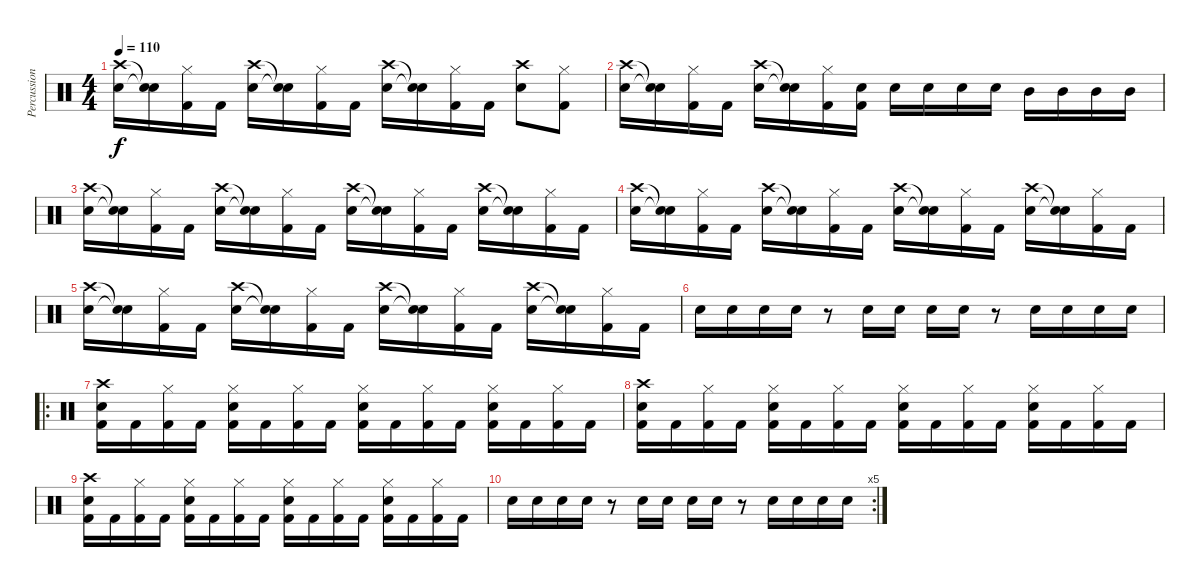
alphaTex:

\track ("Percussion" "Percussion") {instrument percussion}
\staff {score}
\articulation defaults
\ts (4 4)
\tempo 110
\clef neutral
\ks c
("Crash high (hit)" "Snare (hit) 2").16{dy f} ("Snare (hit)"{t} "Snare (hit)"{t}).16 ("Hi-Hat (closed)" "Kick (hit) 2").16 "Kick (hit) 2".16 ("Crash high (hit)" "Snare (hit) 2").16 ("Snare (hit)"{t} "Snare (hit)"{t}).16 ("Hi-Hat (closed)" "Kick (hit) 2").16 "Kick (hit) 2".16 ("Crash high (hit)" "Snare (hit) 2").16 ("Snare (hit)"{t} "Snare (hit)"{t}).16 ("Hi-Hat (closed)" "Kick (hit) 2").16 "Kick (hit) 2".16 ("Crash high (hit)" "Snare (hit) 2").8 ("Hi-Hat (closed)" "Kick (hit) 2").8 |
("Crash high (hit)" "Snare (hit) 2").16 ("Snare (hit)"{t} "Snare (hit)"{t}).16 ("Hi-Hat (closed)" "Kick (hit) 2").16 "Kick (hit) 2".16 ("Crash high (hit)" "Snare (hit) 2").16 ("Snare (hit)"{t} "Snare (hit)"{t}).16 ("Hi-Hat (closed)" "Kick (hit) 2").16 ("Snare (hit) 2" "Kick (hit) 2").16 "Snare (hit) 2".16 "Snare (hit) 2".16 "Snare (hit) 2".16 "Snare (hit) 2".16 "Mid Tom (hit)".16 "Mid Tom (hit)".16 "Mid Tom (hit)".16 "Mid Tom (hit)".16 |
("Crash high (hit)" "Snare (hit) 2").16 ("Snare (hit)"{t} "Snare (hit)"{t}).16 ("Hi-Hat (closed)" "Kick (hit) 2").16 "Kick (hit) 2".16 ("Crash high (hit)" "Snare (hit) 2").16 ("Snare (hit)"{t} "Snare (hit)"{t}).16 ("Hi-Hat (closed)" "Kick (hit) 2").16 "Kick (hit) 2".16 ("Crash high (hit)" "Snare (hit) 2").16 ("Snare (hit)"{t} "Snare (hit)"{t}).16 ("Hi-Hat (closed)" "Kick (hit) 2").16 "Kick (hit) 2".16 ("Crash high (hit)" "Snare (hit) 2").16 ("Snare (hit)"{t} "Snare (hit)"{t}).16 ("Hi-Hat (closed)" "Kick (hit) 2").16 "Kick (hit) 2".16 |
("Crash high (hit)" "Snare (hit) 2").16 ("Snare (hit)"{t} "Snare (hit)"{t}).16 ("Hi-Hat (closed)" "Kick (hit) 2").16 "Kick (hit) 2".16 ("Crash high (hit)" "Snare (hit) 2").16 ("Snare (hit)"{t} "Snare (hit)"{t}).16 ("Hi-Hat (closed)" "Kick (hit) 2").16 "Kick (hit) 2".16 ("Crash high (hit)" "Snare (hit) 2").16 ("Snare (hit)"{t} "Snare (hit)"{t}).16 ("Hi-Hat (closed)" "Kick (hit) 2").16 "Kick (hit) 2".16 ("Crash high (hit)" "Snare (hit) 2").16 ("Snare (hit)"{t} "Snare (hit)"{t}).16 ("Hi-Hat (closed)" "Kick (hit) 2").16 "Kick (hit) 2".16 |
("Crash high (hit)" "Snare (hit) 2").16 ("Snare (hit)"{t} "Snare (hit)"{t}).16 ("Hi-Hat (closed)" "Kick (hit) 2").16 "Kick (hit) 2".16 ("Crash high (hit)" "Snare (hit) 2").16 ("Snare (hit)"{t} "Snare (hit)"{t}).16 ("Hi-Hat (closed)" "Kick (hit) 2").16 "Kick (hit) 2".16 ("Crash high (hit)" "Snare (hit) 2").16 ("Snare (hit)"{t} "Snare (hit)"{t}).16 ("Hi-Hat (closed)" "Kick (hit) 2").16 "Kick (hit) 2".16 ("Crash high (hit)" "Snare (hit) 2").16 ("Snare (hit)"{t} "Snare (hit)"{t}).16 ("Hi-Hat (closed)" "Kick (hit) 2").16 "Kick (hit) 2".16 |
"Snare (hit) 2".16 "Snare (hit) 2".16 "Snare (hit) 2".16 "Snare (hit) 2".16 r.8 "Snare (hit) 2".16 "Snare (hit) 2".16 "Snare (hit) 2".16 "Snare (hit) 2".16 r.8 "Snare (hit) 2".16 "Snare (hit) 2".16 "Snare (hit) 2".16 "Snare (hit) 2".16 |
\ro
("Crash high (hit)" "Snare (hit) 2" "Kick (hit) 2").16 "Kick (hit) 2".16 ("Hi-Hat (closed)" "Kick (hit) 2").16 "Kick (hit) 2".16 ("Hi-Hat (closed)" "Snare (hit) 2" "Kick (hit) 2").16 "Kick (hit) 2".16 ("Hi-Hat (closed)" "Kick (hit) 2").16 "Kick (hit) 2".16 ("Hi-Hat (closed)" "Snare (hit) 2" "Kick (hit) 2").16 "Kick (hit) 2".16 ("Hi-Hat (closed)" "Kick (hit) 2").16 "Kick (hit) 2".16 ("Hi-Hat (closed)" "Snare (hit) 2" "Kick (hit) 2").16 "Kick (hit) 2".16 ("Hi-Hat (closed)" "Kick (hit) 2").16 "Kick (hit) 2".16 |
("Crash high (hit)" "Snare (hit) 2" "Kick (hit) 2").16 "Kick (hit) 2".16 ("Hi-Hat (closed)" "Kick (hit) 2").16 "Kick (hit) 2".16 ("Hi-Hat (closed)" "Snare (hit) 2" "Kick (hit) 2").16 "Kick (hit) 2".16 ("Hi-Hat (closed)" "Kick (hit) 2").16 "Kick (hit) 2".16 ("Hi-Hat (closed)" "Snare (hit) 2" "Kick (hit) 2").16 "Kick (hit) 2".16 ("Hi-Hat (closed)" "Kick (hit) 2").16 "Kick (hit) 2".16 ("Hi-Hat (closed)" "Snare (hit) 2" "Kick (hit) 2").16 "Kick (hit) 2".16 ("Hi-Hat (closed)" "Kick (hit) 2").16 "Kick (hit) 2".16 |
("Crash high (hit)" "Snare (hit) 2" "Kick (hit) 2").16 "Kick (hit) 2".16 ("Hi-Hat (closed)" "Kick (hit) 2").16 "Kick (hit) 2".16 ("Hi-Hat (closed)" "Snare (hit) 2" "Kick (hit) 2").16 "Kick (hit) 2".16 ("Hi-Hat (closed)" "Kick (hit) 2").16 "Kick (hit) 2".16 ("Hi-Hat (closed)" "Snare (hit) 2" "Kick (hit) 2").16 "Kick (hit) 2".16 ("Hi-Hat (closed)" "Kick (hit) 2").16 "Kick (hit) 2".16 ("Hi-Hat (closed)" "Snare (hit) 2" "Kick (hit) 2").16 "Kick (hit) 2".16 ("Hi-Hat (closed)" "Kick (hit) 2").16 "Kick (hit) 2".16 |
\rc 5 "Snare (hit) 2".16 "Snare (hit) 2".16 "Snare (hit) 2".16 "Snare (hit) 2".16
r.8 "Snare (hit) 2".16 "Snare (hit) 2".16 "Snare (hit) 2".16 "Snare (hit) 2".16 r.8 "Snare (hit) 2".16 "Snare (hit) 2".16 "Snare (hit) 2".16 "Snare (hit) 2".16
